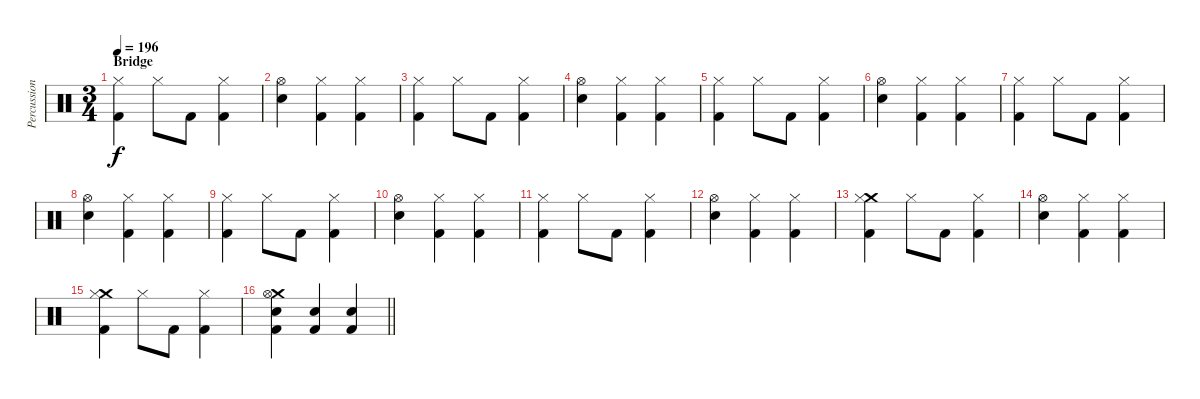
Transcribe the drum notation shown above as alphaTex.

\track ("Percussion" "Percussion") {instrument percussion}
\staff {score}
\articulation defaults
\ts (3 4)
\section ("" "Bridge")
\tempo 196
\clef neutral
\ks c
("Hi-Hat (closed)" "Kick (hit) 2").4{dy f} "Hi-Hat (closed)".8 "Kick (hit) 2".8 ("Hi-Hat (closed)" "Kick (hit) 2").4 |
("Hi-Hat (open)" "Electric Snare (hit)").4 ("Hi-Hat (closed)" "Kick (hit) 2").4 ("Hi-Hat (closed)" "Kick (hit) 2").4 |
("Hi-Hat (closed)" "Kick (hit) 2").4 "Hi-Hat (closed)".8 "Kick (hit) 2".8 ("Hi-Hat (closed)" "Kick (hit) 2").4 |
("Hi-Hat (open)" "Electric Snare (hit)").4 ("Hi-Hat (closed)" "Kick (hit) 2").4 ("Hi-Hat (closed)" "Kick (hit) 2").4 |
("Hi-Hat (closed)" "Kick (hit) 2").4 "Hi-Hat (closed)".8 "Kick (hit) 2".8 ("Hi-Hat (closed)" "Kick (hit) 2").4 |
("Hi-Hat (open)" "Electric Snare (hit)").4 ("Hi-Hat (closed)" "Kick (hit) 2").4 ("Hi-Hat (closed)" "Kick (hit) 2").4 |
("Hi-Hat (closed)" "Kick (hit) 2").4 "Hi-Hat (closed)".8 "Kick (hit) 2".8 ("Hi-Hat (closed)" "Kick (hit) 2").4 |
("Hi-Hat (open)" "Electric Snare (hit)").4 ("Hi-Hat (closed)" "Kick (hit) 2").4 ("Hi-Hat (closed)" "Kick (hit) 2").4 |
("Hi-Hat (closed)" "Kick (hit) 2").4 "Hi-Hat (closed)".8 "Kick (hit) 2".8 ("Hi-Hat (closed)" "Kick (hit) 2").4 |
("Hi-Hat (open)" "Electric Snare (hit)").4 ("Hi-Hat (closed)" "Kick (hit) 2").4 ("Hi-Hat (closed)" "Kick (hit) 2").4 |
("Hi-Hat (closed)" "Kick (hit) 2").4 "Hi-Hat (closed)".8 "Kick (hit) 2".8 ("Hi-Hat (closed)" "Kick (hit) 2").4 |
("Hi-Hat (open)" "Electric Snare (hit)").4 ("Hi-Hat (closed)" "Kick (hit) 2").4 ("Hi-Hat (closed)" "Kick (hit) 2").4 |
("Crash medium (hit)" "Hi-Hat (closed)" "Kick (hit) 2").4 "Hi-Hat (closed)".8 "Kick (hit) 2".8 ("Hi-Hat (closed)" "Kick (hit) 2").4 |
("Hi-Hat (open)" "Electric Snare (hit)").4 ("Hi-Hat (closed)" "Kick (hit) 2").4 ("Hi-Hat (closed)" "Kick (hit) 2").4 |
("Crash medium (hit)" "Hi-Hat (closed)" "Kick (hit) 2").4 "Hi-Hat (closed)".8 "Kick (hit) 2".8 ("Hi-Hat (closed)" "Kick (hit) 2").4 |
\barLineRight lightlight
("Crash medium (hit)" "Hi-Hat (open)" "Electric Snare (hit)" "Kick (hit) 2").4 ("Electric Snare (hit)" "Kick (hit) 2").4 ("Electric Snare (hit)" "Kick (hit) 2").4
